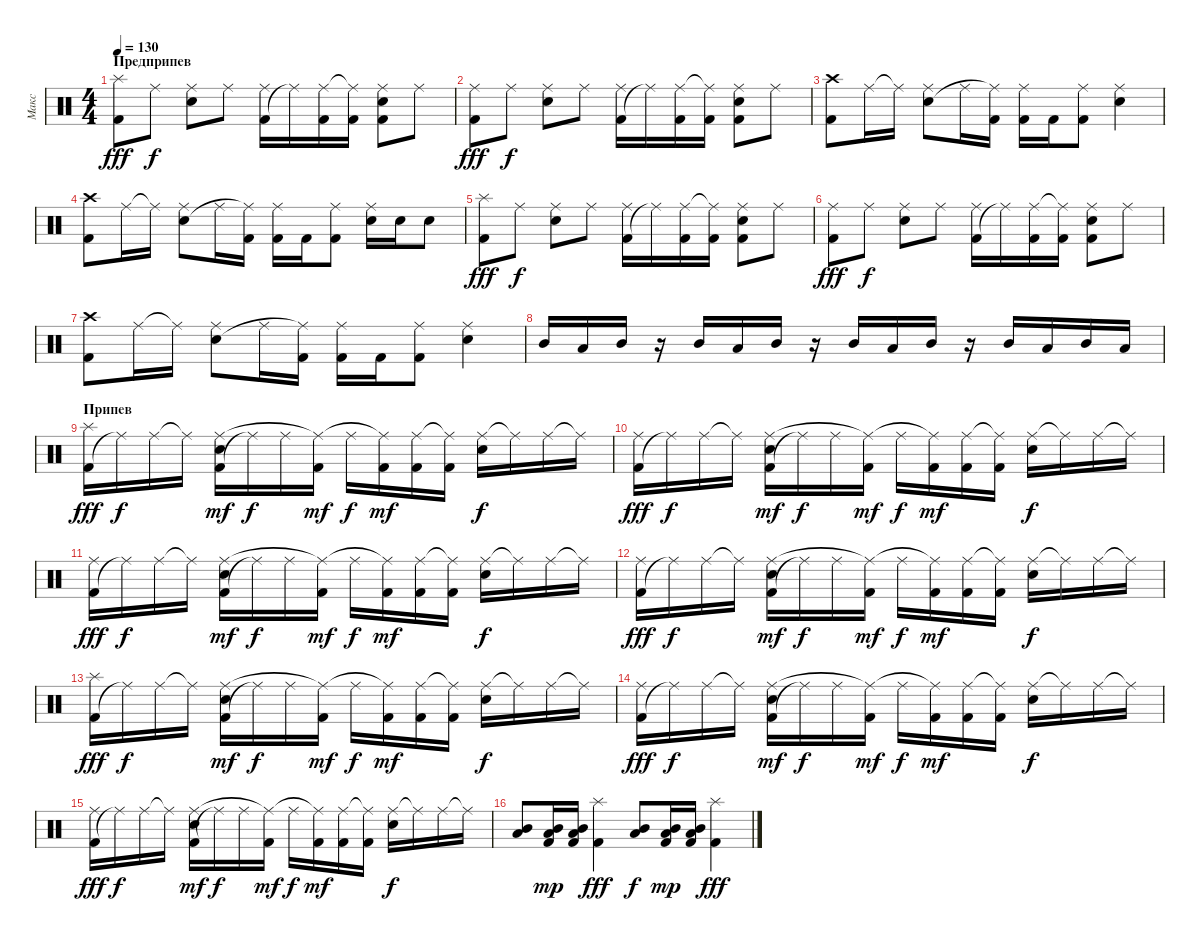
\track ("Макс" "Макс") {instrument percussion}
\staff {score}
\articulation defaults
\ts (4 4)
\section ("" "Предприпев")
\tempo 130
\clef neutral
\ks c
("Kick (hit) 2" "Splash (hit)").8{dy fff} "Ride (middle)".8{dy f} ("Ride (middle)" "Electric Snare (hit)").8 "Ride (middle)".8 ("Kick (hit) 2" "Ride (middle)").16 "Ride (middle)"{t}.16 ("Kick (hit) 2" "Ride (middle)").16 ("Kick (hit) 2" "Ride (middle)"{t}).16 ("Kick (hit) 2" "Ride (middle)" "Electric Snare (hit)").8 "Ride (middle)".8 |
("Kick (hit) 2" "Ride (middle)").8{dy fff} "Ride (middle)".8{dy f} ("Ride (middle)" "Electric Snare (hit)").8 "Ride (middle)".8 ("Kick (hit) 2" "Ride (middle)").16 "Ride (middle)"{t}.16 ("Kick (hit) 2" "Ride (middle)").16 ("Kick (hit) 2" "Ride (middle)"{t}).16 ("Kick (hit) 2" "Ride (middle)" "Electric Snare (hit)").8 "Ride (middle)".8 |
("Kick (hit) 2" "Crash high (hit)").8 "Ride (middle)".16 "Ride (middle)"{t}.16 ("Ride (middle)" "Electric Snare (hit)").8 "Ride (middle)".16 ("Kick (hit) 2" "Ride (middle)"{t}).16 ("Kick (hit) 2" "Ride (middle)").16 "Kick (hit) 2".16 ("Kick (hit) 2" "Ride (middle)").8 ("Ride (middle)" "Electric Snare (hit)").4 |
("Kick (hit) 2" "Crash high (hit)").8 "Ride (middle)".16 "Ride (middle)"{t}.16 ("Ride (middle)" "Electric Snare (hit)").8 "Ride (middle)".16 ("Kick (hit) 2" "Ride (middle)"{t}).16 ("Kick (hit) 2" "Ride (middle)").16 "Kick (hit) 2".16 ("Kick (hit) 2" "Ride (middle)").8 ("Ride (middle)" "Electric Snare (hit)").16 "Electric Snare (hit)".16 "Electric Snare (hit)".8 |
("Kick (hit) 2" "Splash (hit)").8{dy fff} "Ride (middle)".8{dy f} ("Ride (middle)" "Electric Snare (hit)").8 "Ride (middle)".8 ("Kick (hit) 2" "Ride (middle)").16 "Ride (middle)"{t}.16 ("Kick (hit) 2" "Ride (middle)").16 ("Kick (hit) 2" "Ride (middle)"{t}).16 ("Kick (hit) 2" "Ride (middle)" "Electric Snare (hit)").8 "Ride (middle)".8 |
("Kick (hit) 2" "Ride (middle)").8{dy fff} "Ride (middle)".8{dy f} ("Ride (middle)" "Electric Snare (hit)").8 "Ride (middle)".8 ("Kick (hit) 2" "Ride (middle)").16 "Ride (middle)"{t}.16 ("Kick (hit) 2" "Ride (middle)").16 ("Kick (hit) 2" "Ride (middle)"{t}).16 ("Kick (hit) 2" "Ride (middle)" "Electric Snare (hit)").8 "Ride (middle)".8 |
("Kick (hit) 2" "Crash high (hit)").8 "Ride (middle)".16 "Ride (middle)"{t}.16 ("Ride (middle)" "Electric Snare (hit)").8 "Ride (middle)".16 ("Kick (hit) 2" "Ride (middle)"{t}).16 ("Kick (hit) 2" "Ride (middle)").16 "Kick (hit) 2".16 ("Kick (hit) 2" "Ride (middle)").8 ("Ride (middle)" "Electric Snare (hit)").4 |
"Mid Tom (hit)".16 "Low Tom (hit)".16 "Mid Tom (hit)".16 r.16 "Mid Tom (hit)".16 "Low Tom (hit)".16 "Mid Tom (hit)".16 r.16 "Mid Tom (hit)".16 "Low Tom (hit)".16 "Mid Tom (hit)".16 r.16 "Mid Tom (hit)".16 "Low Tom (hit)".16 "Mid Tom (hit)".16 "Low Tom (hit)".16 |
\section ("" "Припев")
("Kick (hit) 2" "Splash (hit)").16{dy fff} "Ride (middle)"{t}.16{dy f} "Ride (middle)".16 "Ride (middle)"{t}.16 ("Kick (hit) 2" "Ride (middle)" "Electric Snare (hit)").16{dy mf} "Ride (middle)"{t}.16{dy f} "Ride (middle)".16 ("Kick (hit) 2" "Ride (middle)"{t}).16{dy mf} "Ride (middle)".16{dy f} ("Kick (hit) 2" "Ride (middle)"{t}).16{dy mf} ("Kick (hit) 2" "Ride (middle)").16 ("Kick (hit) 2" "Ride (middle)"{t}).16 ("Ride (middle)" "Electric Snare (hit)").16{dy f} "Ride (middle)"{t}.16 "Ride (middle)".16 "Ride (middle)"{t}.16 |
("Kick (hit) 2" "Ride (middle)").16{dy fff} "Ride (middle)"{t}.16{dy f} "Ride (middle)".16 "Ride (middle)"{t}.16 ("Kick (hit) 2" "Ride (middle)" "Electric Snare (hit)").16{dy mf} "Ride (middle)"{t}.16{dy f} "Ride (middle)".16 ("Kick (hit) 2" "Ride (middle)"{t}).16{dy mf} "Ride (middle)".16{dy f} ("Kick (hit) 2" "Ride (middle)"{t}).16{dy mf} ("Kick (hit) 2" "Ride (middle)").16 ("Kick (hit) 2" "Ride (middle)"{t}).16 ("Ride (middle)" "Electric Snare (hit)").16{dy f} "Ride (middle)"{t}.16 "Ride (middle)".16 "Ride (middle)"{t}.16 |
("Kick (hit) 2" "Ride (middle)").16{dy fff} "Ride (middle)"{t}.16{dy f} "Ride (middle)".16 "Ride (middle)"{t}.16 ("Kick (hit) 2" "Ride (middle)" "Electric Snare (hit)").16{dy mf} "Ride (middle)"{t}.16{dy f} "Ride (middle)".16 ("Kick (hit) 2" "Ride (middle)"{t}).16{dy mf} "Ride (middle)".16{dy f} ("Kick (hit) 2" "Ride (middle)"{t}).16{dy mf} ("Kick (hit) 2" "Ride (middle)").16 ("Kick (hit) 2" "Ride (middle)"{t}).16 ("Ride (middle)" "Electric Snare (hit)").16{dy f} "Ride (middle)"{t}.16 "Ride (middle)".16 "Ride (middle)"{t}.16 |
("Kick (hit) 2" "Ride (middle)").16{dy fff} "Ride (middle)"{t}.16{dy f} "Ride (middle)".16 "Ride (middle)"{t}.16 ("Kick (hit) 2" "Ride (middle)" "Electric Snare (hit)").16{dy mf} "Ride (middle)"{t}.16{dy f} "Ride (middle)".16 ("Kick (hit) 2" "Ride (middle)"{t}).16{dy mf} "Ride (middle)".16{dy f} ("Kick (hit) 2" "Ride (middle)"{t}).16{dy mf} ("Kick (hit) 2" "Ride (middle)").16 ("Kick (hit) 2" "Ride (middle)"{t}).16 ("Ride (middle)" "Electric Snare (hit)").16{dy f} "Ride (middle)"{t}.16 "Ride (middle)".16 "Ride (middle)"{t}.16 |
("Kick (hit) 2" "Splash (hit)").16{dy fff} "Ride (middle)"{t}.16{dy f} "Ride (middle)".16 "Ride (middle)"{t}.16 ("Kick (hit) 2" "Ride (middle)" "Electric Snare (hit)").16{dy mf} "Ride (middle)"{t}.16{dy f} "Ride (middle)".16 ("Kick (hit) 2" "Ride (middle)"{t}).16{dy mf} "Ride (middle)".16{dy f} ("Kick (hit) 2" "Ride (middle)"{t}).16{dy mf} ("Kick (hit) 2" "Ride (middle)").16 ("Kick (hit) 2" "Ride (middle)"{t}).16 ("Ride (middle)" "Electric Snare (hit)").16{dy f} "Ride (middle)"{t}.16 "Ride (middle)".16 "Ride (middle)"{t}.16 |
("Kick (hit) 2" "Ride (middle)").16{dy fff} "Ride (middle)"{t}.16{dy f} "Ride (middle)".16 "Ride (middle)"{t}.16 ("Kick (hit) 2" "Ride (middle)" "Electric Snare (hit)").16{dy mf} "Ride (middle)"{t}.16{dy f} "Ride (middle)".16 ("Kick (hit) 2" "Ride (middle)"{t}).16{dy mf} "Ride (middle)".16{dy f} ("Kick (hit) 2" "Ride (middle)"{t}).16{dy mf} ("Kick (hit) 2" "Ride (middle)").16 ("Kick (hit) 2" "Ride (middle)"{t}).16 ("Ride (middle)" "Electric Snare (hit)").16{dy f} "Ride (middle)"{t}.16 "Ride (middle)".16 "Ride (middle)"{t}.16 |
("Kick (hit) 2" "Ride (middle)").16{dy fff} "Ride (middle)"{t}.16{dy f} "Ride (middle)".16 "Ride (middle)"{t}.16 ("Kick (hit) 2" "Ride (middle)" "Electric Snare (hit)").16{dy mf} "Ride (middle)"{t}.16{dy f} "Ride (middle)".16 ("Kick (hit) 2" "Ride (middle)"{t}).16{dy mf} "Ride (middle)".16{dy f} ("Kick (hit) 2" "Ride (middle)"{t}).16{dy mf} ("Kick (hit) 2" "Ride (middle)").16 ("Kick (hit) 2" "Ride (middle)"{t}).16 ("Ride (middle)" "Electric Snare (hit)").16{dy f} "Ride (middle)"{t}.16 "Ride (middle)".16 "Ride (middle)"{t}.16 |
("Low Tom (hit)" "Mid Tom (hit)").8 ("Kick (hit) 2" "Mid Tom (hit)" "Low Tom (hit)").16{dy mp} ("Kick (hit) 2" "Mid Tom (hit)" "Low Tom (hit)").16 ("Kick (hit) 2" "Splash (hit)").4{dy fff} ("Low Tom (hit)" "Mid Tom (hit)").8{dy f} ("Kick (hit) 2" "Mid Tom (hit)" "Low Tom (hit)").16{dy mp} ("Kick (hit) 2" "Low Tom (hit)" "Mid Tom (hit)").16 ("Kick (hit) 2" "Splash (hit)").4{dy fff}
